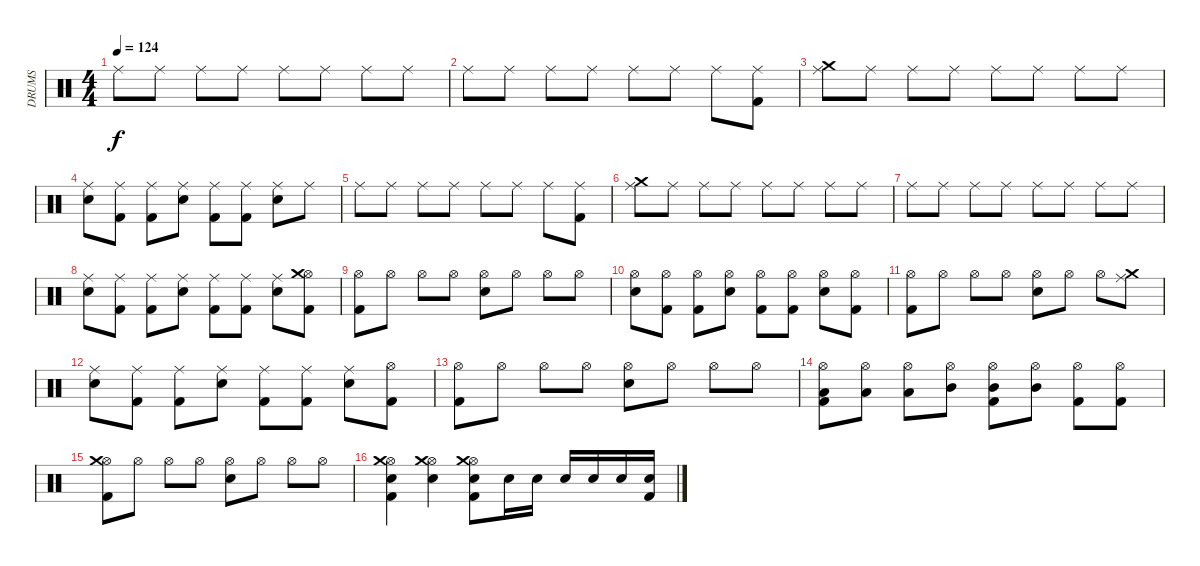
\track ("DRUMS" "DRUMS") {instrument percussion}
\staff {score}
\articulation defaults
\ts (4 4)
\tempo 124
\clef neutral
\ks c "Ride (middle)".8{dy f} "Ride (middle)".8 "Ride (middle)".8 "Ride (middle)".8 "Ride (middle)".8 "Ride (middle)".8 "Ride (middle)".8 "Ride (middle)".8
|
"Ride (middle)".8 "Ride (middle)".8 "Ride (middle)".8 "Ride (middle)".8 "Ride (middle)".8 "Ride (middle)".8 "Ride (middle)".8 ("Kick (hit) 2" "Ride (middle)").8 |
("Ride (middle)" "Crash medium (hit)").8 "Ride (middle)".8 "Ride (middle)".8 "Ride (middle)".8 "Ride (middle)".8 "Ride (middle)".8 "Ride (middle)".8 "Ride (middle)".8 |
("Snare (hit) 2" "Ride (middle)").8 ("Kick (hit) 2" "Ride (middle)").8 ("Kick (hit) 2" "Ride (middle)").8 ("Snare (hit) 2" "Ride (middle)").8 ("Kick (hit) 2" "Ride (middle)").8 ("Kick (hit) 2" "Ride (middle)").8 ("Snare (hit) 2" "Ride (middle)").8 "Ride (middle)".8 |
"Ride (middle)".8 "Ride (middle)".8 "Ride (middle)".8 "Ride (middle)".8 "Ride (middle)".8 "Ride (middle)".8 "Ride (middle)".8 ("Kick (hit) 2" "Ride (middle)").8 |
("Ride (middle)" "Crash medium (hit)").8 "Ride (middle)".8 "Ride (middle)".8 "Ride (middle)".8 "Ride (middle)".8 "Ride (middle)".8 "Ride (middle)".8 "Ride (middle)".8 |
"Ride (middle)".8 "Ride (middle)".8 "Ride (middle)".8 "Ride (middle)".8 "Ride (middle)".8 "Ride (middle)".8 "Ride (middle)".8 "Ride (middle)".8 |
("Snare (hit) 2" "Ride (middle)").8 ("Kick (hit) 2" "Ride (middle)").8 ("Kick (hit) 2" "Ride (middle)").8 ("Snare (hit) 2" "Ride (middle)").8 ("Kick (hit) 2" "Ride (middle)").8 ("Kick (hit) 2" "Ride (middle)").8 ("Snare (hit) 2" "Ride (middle)").8 ("Kick (hit) 2" "Hi-Hat (open)" "Crash medium (hit)").8 |
("Kick (hit) 2" "Hi-Hat (open)").8 "Hi-Hat (open)".8 "Hi-Hat (open)".8 "Hi-Hat (open)".8 ("Snare (hit) 2" "Hi-Hat (open)").8 "Hi-Hat (open)".8 "Hi-Hat (open)".8 "Hi-Hat (open)".8 |
("Snare (hit) 2" "Hi-Hat (open)").8 ("Kick (hit) 2" "Hi-Hat (open)").8 ("Kick (hit) 2" "Hi-Hat (open)").8 ("Snare (hit) 2" "Hi-Hat (open)").8 ("Kick (hit) 2" "Hi-Hat (open)").8 ("Kick (hit) 2" "Hi-Hat (open)").8 ("Snare (hit) 2" "Hi-Hat (open)").8 ("Kick (hit) 2" "Hi-Hat (open)").8 |
("Kick (hit) 2" "Hi-Hat (open)").8 "Hi-Hat (open)".8 "Hi-Hat (open)".8 "Hi-Hat (open)".8 ("Snare (hit) 2" "Hi-Hat (open)").8 "Hi-Hat (open)".8 "Hi-Hat (open)".8 ("Ride (middle)" "Crash medium (hit)").8 |
("Snare (hit) 2" "Ride (middle)").8 ("Kick (hit) 2" "Ride (middle)").8 ("Kick (hit) 2" "Ride (middle)").8 ("Snare (hit) 2" "Ride (middle)").8 ("Kick (hit) 2" "Ride (middle)").8 ("Kick (hit) 2" "Ride (middle)").8 ("Snare (hit) 2" "Ride (middle)").8 ("Kick (hit) 2" "Hi-Hat (open)").8 |
("Kick (hit) 2" "Hi-Hat (open)").8 "Hi-Hat (open)".8 "Hi-Hat (open)".8 "Hi-Hat (open)".8 ("Snare (hit) 2" "Hi-Hat (open)").8 "Hi-Hat (open)".8 "Hi-Hat (open)".8 "Hi-Hat (open)".8 |
("Kick (hit) 2" "Hi-Hat (open)" "Low Floor Tom (hit)").8 ("Hi-Hat (open)" "Low Floor Tom (hit)").8 ("Hi-Hat (open)" "Low Floor Tom (hit)").8 ("Hi-Hat (open)" "Mid Tom (hit)").8 ("Kick (hit) 2" "Hi-Hat (open)" "Mid Tom (hit)").8 ("Hi-Hat (open)" "Mid Tom (hit)").8 ("Kick (hit) 2" "Hi-Hat (open)").8 ("Kick (hit) 2" "Hi-Hat (open)").8 |
("Kick (hit) 2" "Hi-Hat (open)" "Crash medium (hit)").8 "Hi-Hat (open)".8 "Hi-Hat (open)".8 "Hi-Hat (open)".8 ("Snare (hit) 2" "Hi-Hat (open)").8 "Hi-Hat (open)".8 "Hi-Hat (open)".8 "Hi-Hat (open)".8 |
("Kick (hit) 2" "Snare (hit) 2" "Hi-Hat (open)" "Crash medium (hit)").4 ("Snare (hit) 2" "Hi-Hat (open)" "Crash medium (hit)").4 ("Kick (hit) 2" "Snare (hit) 2" "Hi-Hat (open)" "Crash medium (hit)").8 "Snare (hit) 2".16 "Snare (hit) 2".16 "Snare (hit) 2".16 "Snare (hit) 2".16 "Snare (hit) 2".16 ("Kick (hit) 2" "Snare (hit) 2").16
